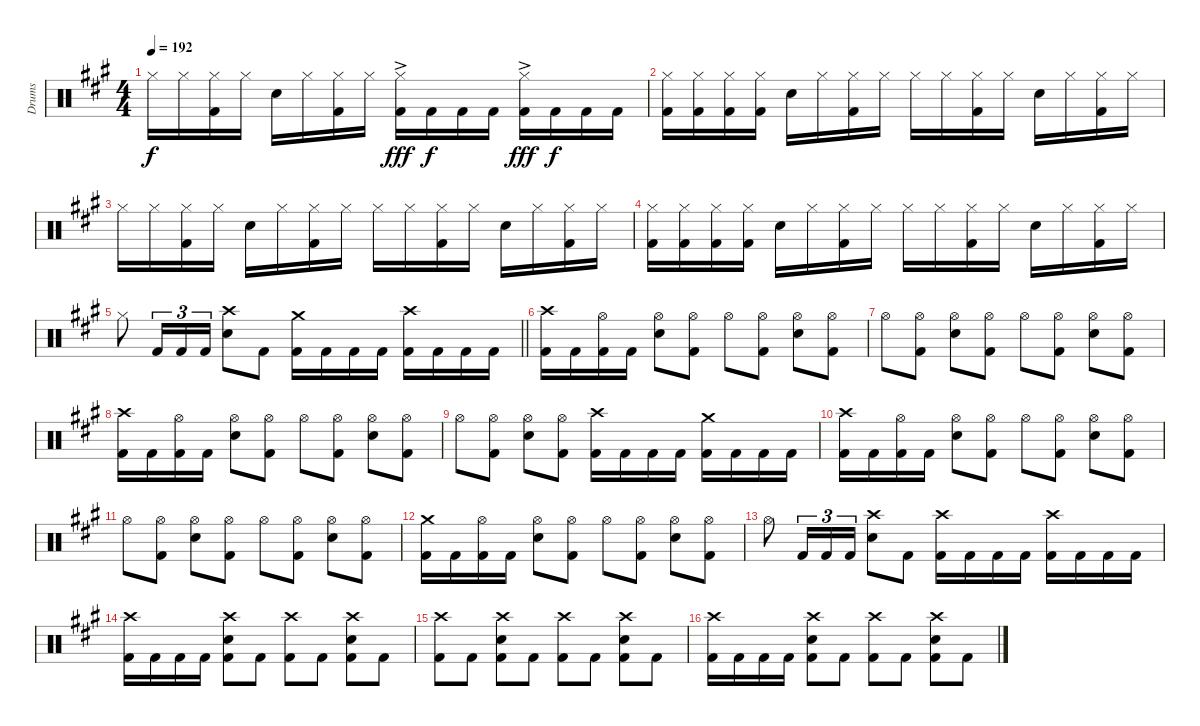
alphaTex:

\track ("Drums" "Drums") {instrument percussion}
\staff {score}
\articulation defaults
\ts (4 4)
\tempo 192
\clef neutral
\ks f#minor "Hi-Hat (closed)".16{dy f} "Hi-Hat (closed)".16
("Hi-Hat (closed)" "Kick (hit) 2").16 "Hi-Hat (closed)".16 "Snare (hit) 2".16 "Hi-Hat (closed)".16 ("Hi-Hat (closed)" "Kick (hit) 2").16 "Hi-Hat (closed)".16 ("Hi-Hat (closed)"{ac} "Kick (hit) 2").16{dy fff} "Kick (hit) 2".16{dy f} "Kick (hit) 2".16 "Kick (hit) 2".16 ("Hi-Hat (closed)"{ac} "Kick (hit) 2").16{dy fff} "Kick (hit) 2".16{dy f} "Kick (hit) 2".16 "Kick (hit) 2".16 |
("Hi-Hat (closed)" "Kick (hit) 2").16 ("Hi-Hat (closed)" "Kick (hit) 2").16 ("Hi-Hat (closed)" "Kick (hit) 2").16 ("Hi-Hat (closed)" "Kick (hit) 2").16 "Snare (hit) 2".16 "Hi-Hat (closed)".16 ("Hi-Hat (closed)" "Kick (hit) 2").16 "Hi-Hat (closed)".16 "Hi-Hat (closed)".16 "Hi-Hat (closed)".16 ("Hi-Hat (closed)" "Kick (hit) 2").16 "Hi-Hat (closed)".16 "Snare (hit) 2".16 "Hi-Hat (closed)".16 ("Hi-Hat (closed)" "Kick (hit) 2").16 "Hi-Hat (closed)".16 |
"Hi-Hat (closed)".16 "Hi-Hat (closed)".16 ("Hi-Hat (closed)" "Kick (hit) 2").16 "Hi-Hat (closed)".16 "Snare (hit) 2".16 "Hi-Hat (closed)".16 ("Hi-Hat (closed)" "Kick (hit) 2").16 "Hi-Hat (closed)".16 "Hi-Hat (closed)".16 "Hi-Hat (closed)".16 ("Hi-Hat (closed)" "Kick (hit) 2").16 "Hi-Hat (closed)".16 "Snare (hit) 2".16 "Hi-Hat (closed)".16 ("Hi-Hat (closed)" "Kick (hit) 2").16 "Hi-Hat (closed)".16 |
("Hi-Hat (closed)" "Kick (hit) 2").16 ("Hi-Hat (closed)" "Kick (hit) 2").16 ("Hi-Hat (closed)" "Kick (hit) 2").16 ("Hi-Hat (closed)" "Kick (hit) 2").16 "Snare (hit) 2".16 "Hi-Hat (closed)".16 ("Hi-Hat (closed)" "Kick (hit) 2").16 "Hi-Hat (closed)".16 "Hi-Hat (closed)".16 "Hi-Hat (closed)".16 ("Hi-Hat (closed)" "Kick (hit) 2").16 "Hi-Hat (closed)".16 "Snare (hit) 2".16 "Hi-Hat (closed)".16 ("Hi-Hat (closed)" "Kick (hit) 2").16 "Hi-Hat (closed)".16 |
\barLineRight lightlight "Hi-Hat (closed)".8 "Kick (hit) 2".16{tu (3 2)} "Kick (hit) 2".16{tu (3 2)} "Kick (hit) 2".16{tu (3 2)}
("Crash high (hit)" "Snare (hit) 2").8 "Kick (hit) 2".8 ("Crash medium (hit)" "Kick (hit) 2").16 "Kick (hit) 2".16 "Kick (hit) 2".16 "Kick (hit) 2".16 ("Crash high (hit)" "Kick (hit) 2").16 "Kick (hit) 2".16 "Kick (hit) 2".16 "Kick (hit) 2".16 |
("Crash high (hit)" "Kick (hit) 2").16 "Kick (hit) 2".16 ("Hi-Hat (open)" "Kick (hit) 2").16 "Kick (hit) 2".16 ("Hi-Hat (open)" "Snare (hit) 2").8 ("Hi-Hat (open)" "Kick (hit) 2").8 "Hi-Hat (open)".8 ("Hi-Hat (open)" "Kick (hit) 2").8 ("Hi-Hat (open)" "Snare (hit) 2").8 ("Hi-Hat (open)" "Kick (hit) 2").8 |
"Hi-Hat (open)".8 ("Hi-Hat (open)" "Kick (hit) 2").8 ("Hi-Hat (open)" "Snare (hit) 2").8 ("Hi-Hat (open)" "Kick (hit) 2").8 "Hi-Hat (open)".8 ("Hi-Hat (open)" "Kick (hit) 2").8 ("Hi-Hat (open)" "Snare (hit) 2").8 ("Hi-Hat (open)" "Kick (hit) 2").8 |
("Crash high (hit)" "Kick (hit) 2").16 "Kick (hit) 2".16 ("Hi-Hat (open)" "Kick (hit) 2").16 "Kick (hit) 2".16 ("Hi-Hat (open)" "Snare (hit) 2").8 ("Hi-Hat (open)" "Kick (hit) 2").8 "Hi-Hat (open)".8 ("Hi-Hat (open)" "Kick (hit) 2").8 ("Hi-Hat (open)" "Snare (hit) 2").8 ("Hi-Hat (open)" "Kick (hit) 2").8 |
"Hi-Hat (open)".8 ("Hi-Hat (open)" "Kick (hit) 2").8 ("Hi-Hat (open)" "Snare (hit) 2").8 ("Hi-Hat (open)" "Kick (hit) 2").8 ("Crash high (hit)" "Kick (hit) 2").16 "Kick (hit) 2".16 "Kick (hit) 2".16 "Kick (hit) 2".16 ("Crash medium (hit)" "Kick (hit) 2").16 "Kick (hit) 2".16 "Kick (hit) 2".16 "Kick (hit) 2".16 |
("Crash high (hit)" "Kick (hit) 2").16 "Kick (hit) 2".16 ("Hi-Hat (open)" "Kick (hit) 2").16 "Kick (hit) 2".16 ("Hi-Hat (open)" "Snare (hit) 2").8 ("Hi-Hat (open)" "Kick (hit) 2").8 "Hi-Hat (open)".8 ("Hi-Hat (open)" "Kick (hit) 2").8 ("Hi-Hat (open)" "Snare (hit) 2").8 ("Hi-Hat (open)" "Kick (hit) 2").8 |
"Hi-Hat (open)".8 ("Hi-Hat (open)" "Kick (hit) 2").8 ("Hi-Hat (open)" "Snare (hit) 2").8 ("Hi-Hat (open)" "Kick (hit) 2").8 "Hi-Hat (open)".8 ("Hi-Hat (open)" "Kick (hit) 2").8 ("Hi-Hat (open)" "Snare (hit) 2").8 ("Hi-Hat (open)" "Kick (hit) 2").8 |
("Crash medium (hit)" "Kick (hit) 2").16 "Kick (hit) 2".16 ("Hi-Hat (open)" "Kick (hit) 2").16 "Kick (hit) 2".16 ("Hi-Hat (open)" "Snare (hit) 2").8 ("Hi-Hat (open)" "Kick (hit) 2").8 "Hi-Hat (open)".8 ("Hi-Hat (open)" "Kick (hit) 2").8 ("Hi-Hat (open)" "Snare (hit) 2").8 ("Hi-Hat (open)" "Kick (hit) 2").8 |
"Hi-Hat (open)".8 "Kick (hit) 2".16{tu (3 2)} "Kick (hit) 2".16{tu (3 2)} "Kick (hit) 2".16{tu (3 2)} ("Crash high (hit)" "Snare (hit) 2").8 "Kick (hit) 2".8 ("Crash high (hit)" "Kick (hit) 2").16 "Kick (hit) 2".16 "Kick (hit) 2".16 "Kick (hit) 2".16 ("Crash high (hit)" "Kick (hit) 2").16 "Kick (hit) 2".16 "Kick (hit) 2".16 "Kick (hit) 2".16 |
("Crash high (hit)" "Kick (hit) 2").16 "Kick (hit) 2".16 "Kick (hit) 2".16 "Kick (hit) 2".16 ("Crash high (hit)" "Snare (hit) 2" "Kick (hit) 2").8 "Kick (hit) 2".8 ("Crash high (hit)" "Kick (hit) 2").8 "Kick (hit) 2".8 ("Crash high (hit)" "Snare (hit) 2" "Kick (hit) 2").8 "Kick (hit) 2".8 |
("Crash high (hit)" "Kick (hit) 2").8 "Kick (hit) 2".8 ("Crash high (hit)" "Snare (hit) 2" "Kick (hit) 2").8 "Kick (hit) 2".8 ("Crash high (hit)" "Kick (hit) 2").8 "Kick (hit) 2".8 ("Crash high (hit)" "Snare (hit) 2" "Kick (hit) 2").8 "Kick (hit) 2".8 |
("Crash high (hit)" "Kick (hit) 2").16 "Kick (hit) 2".16 "Kick (hit) 2".16 "Kick (hit) 2".16 ("Crash high (hit)" "Snare (hit) 2" "Kick (hit) 2").8 "Kick (hit) 2".8 ("Crash high (hit)" "Kick (hit) 2").8 "Kick (hit) 2".8 ("Crash high (hit)" "Snare (hit) 2" "Kick (hit) 2").8 "Kick (hit) 2".8
